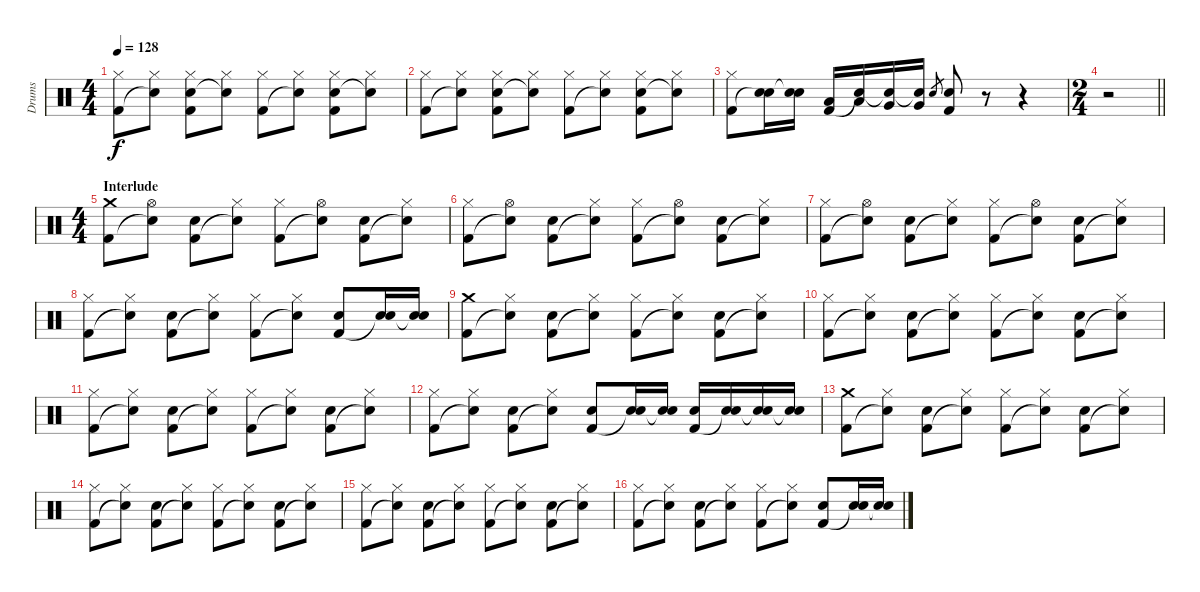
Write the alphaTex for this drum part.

\track ("Drums" "Drums") {instrument percussion}
\staff {score}
\articulation defaults
\ts (4 4)
\tempo 128
\clef neutral
\ks aminor
("Hi-Hat (closed)" "Kick (hit) 2").8{dy f} ("Hi-Hat (closed)" "Snare (hit)"{t}).8 ("Hi-Hat (closed)" "Electric Snare (hit)" "Kick (hit) 2").8 ("Hi-Hat (closed)" "Snare (hit)"{t}).8 ("Hi-Hat (closed)" "Kick (hit) 2").8 ("Hi-Hat (closed)" "Snare (hit)"{t}).8 ("Hi-Hat (closed)" "Electric Snare (hit)" "Kick (hit) 2").8 ("Hi-Hat (closed)" "Snare (hit)"{t}).8 |
("Hi-Hat (closed)" "Kick (hit) 2").8 ("Hi-Hat (closed)" "Snare (hit)"{t}).8 ("Hi-Hat (closed)" "Electric Snare (hit)" "Kick (hit) 2").8 ("Hi-Hat (closed)" "Snare (hit)"{t}).8 ("Hi-Hat (closed)" "Kick (hit) 2").8 ("Hi-Hat (closed)" "Snare (hit)"{t}).8 ("Hi-Hat (closed)" "Electric Snare (hit)" "Kick (hit) 2").8 ("Hi-Hat (closed)" "Snare (hit)"{t}).8 |
("Hi-Hat (closed)" "Kick (hit) 2").8 ("Electric Snare (hit)" "Snare (hit)"{t}).16 ("Electric Snare (hit)" "Snare (hit)"{t}).16 ("Low Tom (hit)" "Kick (hit) 2").16 ("Low Tom (hit)" "Snare (hit)"{t}).16 ("Very Low Tom (hit)" "Snare (hit)"{t}).16 ("Very Low Tom (hit)" "Snare (hit)"{t}).16 "Electric Snare (hit)".8{gr} ("Electric Snare (hit)" "Kick (hit) 2").8 r.8 r.4 |
\ts (2 4)
\barLineRight lightlight
r.2 |
\ts (4 4)
\section ("" "Interlude")
("Crash medium (hit)" "Kick (hit) 2").8 ("Hi-Hat (open)" "Snare (hit)"{t}).8 ("Electric Snare (hit)" "Kick (hit) 2").8 ("Hi-Hat (closed)" "Snare (hit)"{t}).8 ("Hi-Hat (closed)" "Kick (hit) 2").8 ("Hi-Hat (open)" "Snare (hit)"{t}).8 ("Electric Snare (hit)" "Kick (hit) 2").8 ("Hi-Hat (closed)" "Snare (hit)"{t}).8 |
("Hi-Hat (closed)" "Kick (hit) 2").8 ("Hi-Hat (open)" "Snare (hit)"{t}).8 ("Electric Snare (hit)" "Kick (hit) 2").8 ("Hi-Hat (closed)" "Snare (hit)"{t}).8 ("Hi-Hat (closed)" "Kick (hit) 2").8 ("Hi-Hat (open)" "Snare (hit)"{t}).8 ("Electric Snare (hit)" "Kick (hit) 2").8 ("Hi-Hat (closed)" "Snare (hit)"{t}).8 |
("Hi-Hat (closed)" "Kick (hit) 2").8 ("Hi-Hat (open)" "Snare (hit)"{t}).8 ("Electric Snare (hit)" "Kick (hit) 2").8 ("Hi-Hat (closed)" "Snare (hit)"{t}).8 ("Hi-Hat (closed)" "Kick (hit) 2").8 ("Hi-Hat (open)" "Snare (hit)"{t}).8 ("Electric Snare (hit)" "Kick (hit) 2").8 ("Hi-Hat (closed)" "Snare (hit)"{t}).8 |
("Hi-Hat (closed)" "Kick (hit) 2").8 ("Hi-Hat (closed)" "Snare (hit)"{t}).8 ("Electric Snare (hit)" "Kick (hit) 2").8 ("Hi-Hat (closed)" "Snare (hit)"{t}).8 ("Hi-Hat (closed)" "Kick (hit) 2").8 ("Hi-Hat (closed)" "Snare (hit)"{t}).8 ("Electric Snare (hit)" "Kick (hit) 2").8 ("Electric Snare (hit)" "Snare (hit)"{t}).16 ("Electric Snare (hit)" "Snare (hit)"{t}).16 |
("Crash medium (hit)" "Kick (hit) 2").8 ("Hi-Hat (closed)" "Snare (hit)"{t}).8 ("Electric Snare (hit)" "Kick (hit) 2").8 ("Hi-Hat (closed)" "Snare (hit)"{t}).8 ("Hi-Hat (closed)" "Kick (hit) 2").8 ("Hi-Hat (closed)" "Snare (hit)"{t}).8 ("Electric Snare (hit)" "Kick (hit) 2").8 ("Hi-Hat (closed)" "Snare (hit)"{t}).8 |
("Hi-Hat (closed)" "Kick (hit) 2").8 ("Hi-Hat (closed)" "Snare (hit)"{t}).8 ("Electric Snare (hit)" "Kick (hit) 2").8 ("Hi-Hat (closed)" "Snare (hit)"{t}).8 ("Hi-Hat (closed)" "Kick (hit) 2").8 ("Hi-Hat (closed)" "Snare (hit)"{t}).8 ("Electric Snare (hit)" "Kick (hit) 2").8 ("Hi-Hat (closed)" "Snare (hit)"{t}).8 |
("Hi-Hat (closed)" "Kick (hit) 2").8 ("Hi-Hat (closed)" "Snare (hit)"{t}).8 ("Electric Snare (hit)" "Kick (hit) 2").8 ("Hi-Hat (closed)" "Snare (hit)"{t}).8 ("Hi-Hat (closed)" "Kick (hit) 2").8 ("Hi-Hat (closed)" "Snare (hit)"{t}).8 ("Electric Snare (hit)" "Kick (hit) 2").8 ("Hi-Hat (closed)" "Snare (hit)"{t}).8 |
("Hi-Hat (closed)" "Kick (hit) 2").8 ("Hi-Hat (closed)" "Snare (hit)"{t}).8 ("Electric Snare (hit)" "Kick (hit) 2").8 ("Hi-Hat (closed)" "Snare (hit)"{t}).8 ("Electric Snare (hit)" "Kick (hit) 2").8 ("Electric Snare (hit)" "Snare (hit)"{t}).16 ("Electric Snare (hit)" "Snare (hit)"{t}).16 ("Electric Snare (hit)" "Kick (hit) 2").16 ("Electric Snare (hit)" "Snare (hit)"{t}).16 ("Electric Snare (hit)" "Snare (hit)"{t}).16 ("Electric Snare (hit)" "Snare (hit)"{t}).16 |
("Crash medium (hit)" "Kick (hit) 2").8 ("Hi-Hat (closed)" "Snare (hit)"{t}).8 ("Electric Snare (hit)" "Kick (hit) 2").8 ("Hi-Hat (closed)" "Snare (hit)"{t}).8 ("Hi-Hat (closed)" "Kick (hit) 2").8 ("Hi-Hat (closed)" "Snare (hit)"{t}).8 ("Electric Snare (hit)" "Kick (hit) 2").8 ("Hi-Hat (closed)" "Snare (hit)"{t}).8 |
("Hi-Hat (closed)" "Kick (hit) 2").8 ("Hi-Hat (closed)" "Snare (hit)"{t}).8 ("Electric Snare (hit)" "Kick (hit) 2").8 ("Hi-Hat (closed)" "Snare (hit)"{t}).8 ("Hi-Hat (closed)" "Kick (hit) 2").8 ("Hi-Hat (closed)" "Snare (hit)"{t}).8 ("Electric Snare (hit)" "Kick (hit) 2").8 ("Hi-Hat (closed)" "Snare (hit)"{t}).8 |
("Hi-Hat (closed)" "Kick (hit) 2").8 ("Hi-Hat (closed)" "Snare (hit)"{t}).8 ("Electric Snare (hit)" "Kick (hit) 2").8 ("Hi-Hat (closed)" "Snare (hit)"{t}).8 ("Hi-Hat (closed)" "Kick (hit) 2").8 ("Hi-Hat (closed)" "Snare (hit)"{t}).8 ("Electric Snare (hit)" "Kick (hit) 2").8 ("Hi-Hat (closed)" "Snare (hit)"{t}).8 |
("Hi-Hat (closed)" "Kick (hit) 2").8 ("Hi-Hat (closed)" "Snare (hit)"{t}).8 ("Electric Snare (hit)" "Kick (hit) 2").8 ("Hi-Hat (closed)" "Snare (hit)"{t}).8 ("Hi-Hat (closed)" "Kick (hit) 2").8 ("Hi-Hat (closed)" "Snare (hit)"{t}).8 ("Electric Snare (hit)" "Kick (hit) 2").8 ("Electric Snare (hit)" "Snare (hit)"{t}).16 ("Electric Snare (hit)" "Snare (hit)"{t}).16
